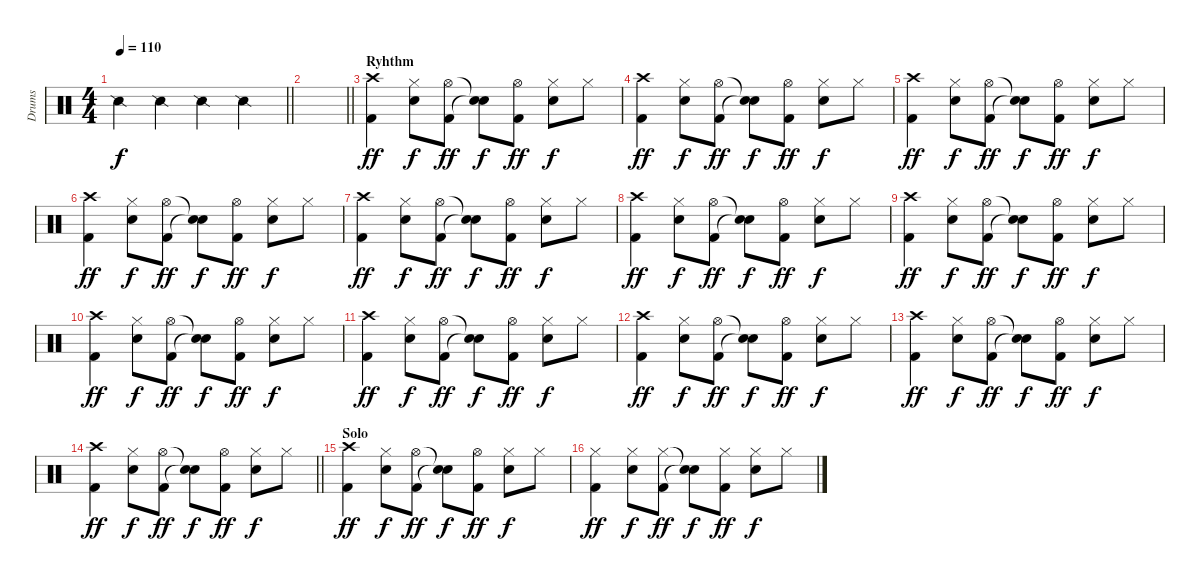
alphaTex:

\track ("Drums" "Drums") {instrument percussion}
\staff {score}
\articulation defaults
\ts (4 4)
\tempo 110
\clef neutral
\barLineRight lightlight
\ks c "Snare (side stick) 2".4{dy f} "Snare (side stick) 2".4 "Snare (side stick) 2".4 "Snare (side stick) 2".4
|
\section ("" "")
\barLineRight lightlight
|
\section ("" "Ryhthm")
("Crash high (hit)" "Kick (hit) 2").4{dy ff} ("Hi-Hat (closed)" "Electric Snare (hit)").8{dy f} ("Hi-Hat (open)" "Kick (hit) 2").8{dy ff} ("Snare (hit)"{t} "Snare (hit)"{t}).8{dy f} ("Hi-Hat (open)" "Kick (hit) 2").8{dy ff} ("Hi-Hat (closed)" "Electric Snare (hit)").8{dy f} "Hi-Hat (closed)".8 |
("Crash high (hit)" "Kick (hit) 2").4{dy ff} ("Hi-Hat (closed)" "Electric Snare (hit)").8{dy f} ("Hi-Hat (open)" "Kick (hit) 2").8{dy ff} ("Snare (hit)"{t} "Snare (hit)"{t}).8{dy f} ("Hi-Hat (open)" "Kick (hit) 2").8{dy ff} ("Hi-Hat (closed)" "Electric Snare (hit)").8{dy f} "Hi-Hat (closed)".8 |
("Crash high (hit)" "Kick (hit) 2").4{dy ff} ("Hi-Hat (closed)" "Electric Snare (hit)").8{dy f} ("Hi-Hat (open)" "Kick (hit) 2").8{dy ff} ("Snare (hit)"{t} "Snare (hit)"{t}).8{dy f} ("Hi-Hat (open)" "Kick (hit) 2").8{dy ff} ("Hi-Hat (closed)" "Electric Snare (hit)").8{dy f} "Hi-Hat (closed)".8 |
("Crash high (hit)" "Kick (hit) 2").4{dy ff} ("Hi-Hat (closed)" "Electric Snare (hit)").8{dy f} ("Hi-Hat (open)" "Kick (hit) 2").8{dy ff} ("Snare (hit)"{t} "Snare (hit)"{t}).8{dy f} ("Hi-Hat (open)" "Kick (hit) 2").8{dy ff} ("Hi-Hat (closed)" "Electric Snare (hit)").8{dy f} "Hi-Hat (closed)".8 |
("Crash high (hit)" "Kick (hit) 2").4{dy ff} ("Hi-Hat (closed)" "Electric Snare (hit)").8{dy f} ("Hi-Hat (open)" "Kick (hit) 2").8{dy ff} ("Snare (hit)"{t} "Snare (hit)"{t}).8{dy f} ("Hi-Hat (open)" "Kick (hit) 2").8{dy ff} ("Hi-Hat (closed)" "Electric Snare (hit)").8{dy f} "Hi-Hat (closed)".8 |
("Crash high (hit)" "Kick (hit) 2").4{dy ff} ("Hi-Hat (closed)" "Electric Snare (hit)").8{dy f} ("Hi-Hat (open)" "Kick (hit) 2").8{dy ff} ("Snare (hit)"{t} "Snare (hit)"{t}).8{dy f} ("Hi-Hat (open)" "Kick (hit) 2").8{dy ff} ("Hi-Hat (closed)" "Electric Snare (hit)").8{dy f} "Hi-Hat (closed)".8 |
("Crash high (hit)" "Kick (hit) 2").4{dy ff} ("Hi-Hat (closed)" "Electric Snare (hit)").8{dy f} ("Hi-Hat (open)" "Kick (hit) 2").8{dy ff} ("Snare (hit)"{t} "Snare (hit)"{t}).8{dy f} ("Hi-Hat (open)" "Kick (hit) 2").8{dy ff} ("Hi-Hat (closed)" "Electric Snare (hit)").8{dy f} "Hi-Hat (closed)".8 |
("Crash high (hit)" "Kick (hit) 2").4{dy ff} ("Hi-Hat (closed)" "Electric Snare (hit)").8{dy f} ("Hi-Hat (open)" "Kick (hit) 2").8{dy ff} ("Snare (hit)"{t} "Snare (hit)"{t}).8{dy f} ("Hi-Hat (open)" "Kick (hit) 2").8{dy ff} ("Hi-Hat (closed)" "Electric Snare (hit)").8{dy f} "Hi-Hat (closed)".8 |
("Crash high (hit)" "Kick (hit) 2").4{dy ff} ("Hi-Hat (closed)" "Electric Snare (hit)").8{dy f} ("Hi-Hat (open)" "Kick (hit) 2").8{dy ff} ("Snare (hit)"{t} "Snare (hit)"{t}).8{dy f} ("Hi-Hat (open)" "Kick (hit) 2").8{dy ff} ("Hi-Hat (closed)" "Electric Snare (hit)").8{dy f} "Hi-Hat (closed)".8 |
("Crash high (hit)" "Kick (hit) 2").4{dy ff} ("Hi-Hat (closed)" "Electric Snare (hit)").8{dy f} ("Hi-Hat (open)" "Kick (hit) 2").8{dy ff} ("Snare (hit)"{t} "Snare (hit)"{t}).8{dy f} ("Hi-Hat (open)" "Kick (hit) 2").8{dy ff} ("Hi-Hat (closed)" "Electric Snare (hit)").8{dy f} "Hi-Hat (closed)".8 |
("Crash high (hit)" "Kick (hit) 2").4{dy ff} ("Hi-Hat (closed)" "Electric Snare (hit)").8{dy f} ("Hi-Hat (open)" "Kick (hit) 2").8{dy ff} ("Snare (hit)"{t} "Snare (hit)"{t}).8{dy f} ("Hi-Hat (open)" "Kick (hit) 2").8{dy ff} ("Hi-Hat (closed)" "Electric Snare (hit)").8{dy f} "Hi-Hat (closed)".8 |
\barLineRight lightlight
("Crash high (hit)" "Kick (hit) 2").4{dy ff} ("Hi-Hat (closed)" "Electric Snare (hit)").8{dy f} ("Hi-Hat (open)" "Kick (hit) 2").8{dy ff} ("Snare (hit)"{t} "Snare (hit)"{t}).8{dy f} ("Hi-Hat (open)" "Kick (hit) 2").8{dy ff} ("Hi-Hat (closed)" "Electric Snare (hit)").8{dy f} "Hi-Hat (closed)".8 |
\section ("" "Solo")
("Crash high (hit)" "Kick (hit) 2").4{dy ff} ("Hi-Hat (closed)" "Electric Snare (hit)").8{dy f} ("Hi-Hat (open)" "Kick (hit) 2").8{dy ff} ("Snare (hit)"{t} "Snare (hit)"{t}).8{dy f} ("Hi-Hat (open)" "Kick (hit) 2").8{dy ff} ("Hi-Hat (closed)" "Electric Snare (hit)").8{dy f} "Hi-Hat (closed)".8 |
("Hi-Hat (closed)" "Kick (hit) 2").4{dy ff} ("Hi-Hat (closed)" "Electric Snare (hit)").8{dy f} ("Hi-Hat (closed)" "Kick (hit) 2").8{dy ff} ("Snare (hit)"{t} "Snare (hit)"{t}).8{dy f} ("Hi-Hat (closed)" "Kick (hit) 2").8{dy ff} ("Hi-Hat (closed)" "Electric Snare (hit)").8{dy f} "Hi-Hat (closed)".8
